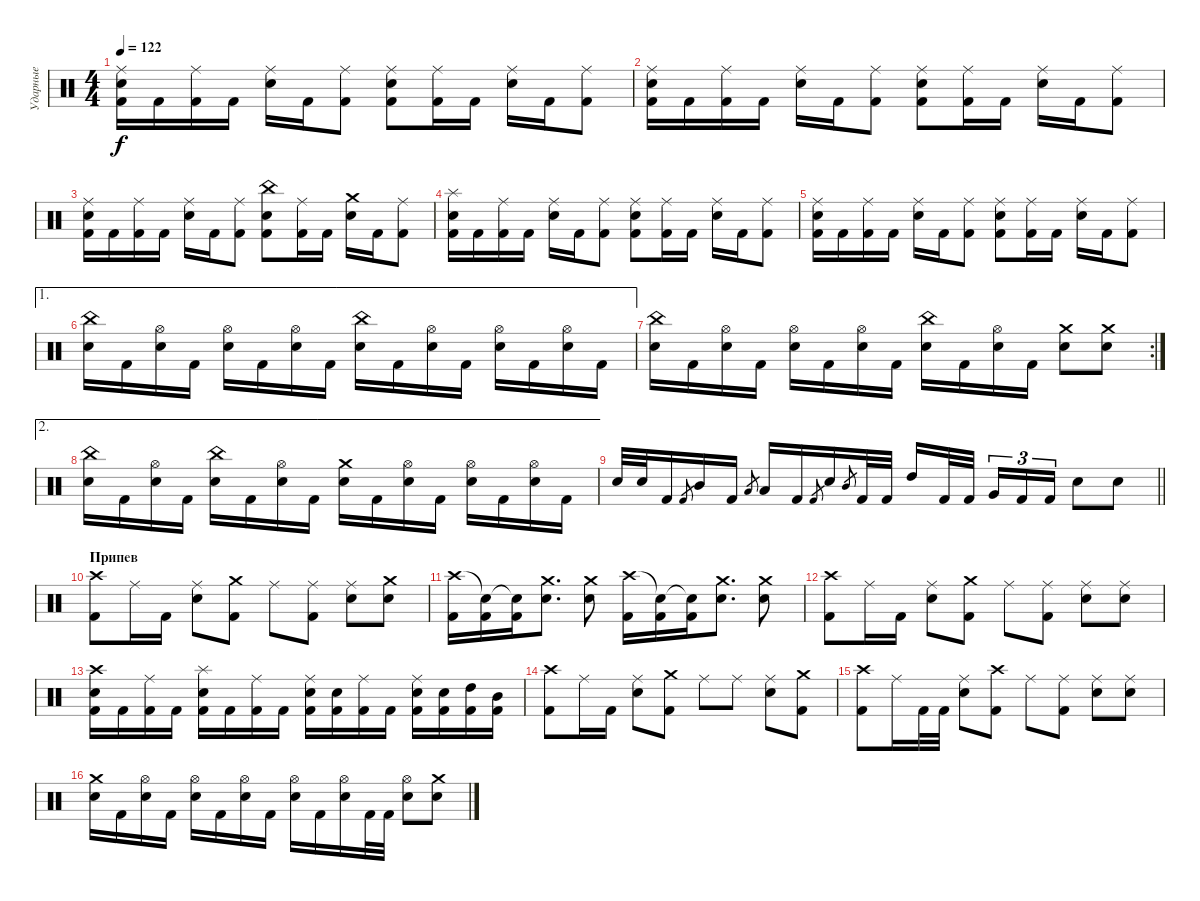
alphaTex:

\track ("Ударные" "Ударные") {instrument percussion}
\staff {score}
\articulation defaults
\ts (4 4)
\tempo 122
\clef neutral
\ks c
("Ride (middle)" "Electric Snare (hit)" "Kick (hit) 2").16{dy f} "Kick (hit) 2".16 ("Ride (middle)" "Kick (hit) 2").16 "Kick (hit) 2".16 ("Ride (middle)" "Electric Snare (hit)").16 "Kick (hit) 2".16 ("Ride (middle)" "Kick (hit) 2").8 ("Ride (middle)" "Electric Snare (hit)" "Kick (hit) 2").8 ("Ride (middle)" "Kick (hit) 2").16 "Kick (hit) 2".16 ("Ride (middle)" "Electric Snare (hit)").16 "Kick (hit) 2".16 ("Ride (middle)" "Kick (hit) 2").8 |
("Ride (middle)" "Electric Snare (hit)" "Kick (hit) 2").16 "Kick (hit) 2".16 ("Ride (middle)" "Kick (hit) 2").16 "Kick (hit) 2".16 ("Ride (middle)" "Electric Snare (hit)").16 "Kick (hit) 2".16 ("Ride (middle)" "Kick (hit) 2").8 ("Ride (middle)" "Electric Snare (hit)" "Kick (hit) 2").8 ("Ride (middle)" "Kick (hit) 2").16 "Kick (hit) 2".16 ("Ride (middle)" "Electric Snare (hit)").16 "Kick (hit) 2".16 ("Ride (middle)" "Kick (hit) 2").8 |
("Ride (middle)" "Electric Snare (hit)" "Kick (hit) 2").16 "Kick (hit) 2".16 ("Ride (middle)" "Kick (hit) 2").16 "Kick (hit) 2".16 ("Ride (middle)" "Electric Snare (hit)").16 "Kick (hit) 2".16 ("Ride (middle)" "Kick (hit) 2").8 ("China (hit)" "Electric Snare (hit)" "Kick (hit) 2").8 ("Ride (middle)" "Kick (hit) 2").16 "Kick (hit) 2".16 ("Crash medium (hit)" "Electric Snare (hit)").16 "Kick (hit) 2".16 ("Ride (middle)" "Kick (hit) 2").8 |
("Splash (hit)" "Electric Snare (hit)" "Kick (hit) 2").16 "Kick (hit) 2".16 ("Ride (middle)" "Kick (hit) 2").16 "Kick (hit) 2".16 ("Ride (middle)" "Electric Snare (hit)").16 "Kick (hit) 2".16 ("Ride (middle)" "Kick (hit) 2").8 ("Ride (middle)" "Electric Snare (hit)" "Kick (hit) 2").8 ("Ride (middle)" "Kick (hit) 2").16 "Kick (hit) 2".16 ("Ride (middle)" "Electric Snare (hit)").16 "Kick (hit) 2".16 ("Ride (middle)" "Kick (hit) 2").8 |
("Ride (middle)" "Electric Snare (hit)" "Kick (hit) 2").16 "Kick (hit) 2".16 ("Ride (middle)" "Kick (hit) 2").16 "Kick (hit) 2".16 ("Ride (middle)" "Electric Snare (hit)").16 "Kick (hit) 2".16 ("Ride (middle)" "Kick (hit) 2").8 ("Ride (middle)" "Electric Snare (hit)" "Kick (hit) 2").8 ("Ride (middle)" "Kick (hit) 2").16 "Kick (hit) 2".16 ("Ride (middle)" "Electric Snare (hit)").16 "Kick (hit) 2".16 ("Ride (middle)" "Kick (hit) 2").8 |
\ae 1
("China (hit)" "Electric Snare (hit)").16 "Kick (hit) 2".16 ("Hi-Hat (open)" "Electric Snare (hit)").16 "Kick (hit) 2".16 ("Hi-Hat (open)" "Electric Snare (hit)").16 "Kick (hit) 2".16 ("Hi-Hat (open)" "Electric Snare (hit)").16 "Kick (hit) 2".16 ("China (hit)" "Electric Snare (hit)").16 "Kick (hit) 2".16 ("Hi-Hat (open)" "Electric Snare (hit)").16 "Kick (hit) 2".16 ("Hi-Hat (open)" "Electric Snare (hit)").16 "Kick (hit) 2".16 ("Hi-Hat (open)" "Electric Snare (hit)").16 "Kick (hit) 2".16 |
\rc 2
("China (hit)" "Electric Snare (hit)").16 "Kick (hit) 2".16 ("Hi-Hat (open)" "Electric Snare (hit)").16 "Kick (hit) 2".16 ("Hi-Hat (open)" "Electric Snare (hit)").16 "Kick (hit) 2".16 ("Hi-Hat (open)" "Electric Snare (hit)").16 "Kick (hit) 2".16 ("China (hit)" "Electric Snare (hit)").16 "Kick (hit) 2".16 ("Hi-Hat (open)" "Electric Snare (hit)").16 "Kick (hit) 2".16 ("Crash medium (hit)" "Electric Snare (hit)").8 ("Crash medium (hit)" "Electric Snare (hit)").8 |
\ae 2
("China (hit)" "Electric Snare (hit)").16 "Kick (hit) 2".16 ("Hi-Hat (open)" "Electric Snare (hit)").16 "Kick (hit) 2".16 ("China (hit)" "Electric Snare (hit)").16 "Kick (hit) 2".16 ("Hi-Hat (open)" "Electric Snare (hit)").16 "Kick (hit) 2".16 ("Crash medium (hit)" "Electric Snare (hit)").16 "Kick (hit) 2".16 ("Hi-Hat (open)" "Electric Snare (hit)").16 "Kick (hit) 2".16 ("Hi-Hat (open)" "Electric Snare (hit)").16 "Kick (hit) 2".16 ("Hi-Hat (open)" "Electric Snare (hit)").16 "Kick (hit) 2".16 |
\barLineRight lightlight "Electric Snare (hit)".32 "Electric Snare (hit)".32 "Kick (hit) 2".16 "Kick (hit) 2".8{gr} "Mid Tom (hit)".16 "Kick (hit) 2".16 "Low Tom (hit)".8{gr} "Low Tom (hit)".16 "Kick (hit) 2".16 "Kick (hit) 2".8{gr} "Electric Snare (hit)".16 "Mid Tom (hit)".8{gr} "Kick (hit) 2".32 "Kick (hit) 2".32 "High Tom (hit)".16 "Kick (hit) 2".32 "Kick (hit) 2".32{beam splitsecondary} "Very Low Tom (hit)".16{tu (3 2)} "Kick (hit) 2".16{tu (3 2)} "Kick (hit) 2".16{tu (3 2)} "Electric Snare (hit)".8 "Electric Snare (hit)".8
|
\section ("" "Припев")
("Crash high (hit)" "Kick (hit) 2").8 "Ride (middle)".16 "Kick (hit) 2".16 ("Ride (middle)" "Electric Snare (hit)").8 ("Crash medium (hit)" "Kick (hit) 2").8 "Ride (middle)".8 ("Ride (middle)" "Kick (hit) 2").8 ("Ride (middle)" "Electric Snare (hit)").8 ("Crash medium (hit)" "Electric Snare (hit)").8 |
("Crash high (hit)" "Kick (hit) 2").16 ("Snare (hit)"{t} "Kick (hit) 2").16 ("Snare (hit)"{t} "Kick (hit) 2").16 ("Crash medium (hit)" "Electric Snare (hit)").8{d} ("Crash medium (hit)" "Electric Snare (hit)").8 ("Crash high (hit)" "Kick (hit) 2").16 ("Snare (hit)"{t} "Kick (hit) 2").16 ("Snare (hit)"{t} "Kick (hit) 2").16 ("Crash medium (hit)" "Electric Snare (hit)").8{d} ("Crash medium (hit)" "Electric Snare (hit)").8 |
("Crash high (hit)" "Kick (hit) 2").8 "Ride (middle)".16 "Kick (hit) 2".16 ("Ride (middle)" "Electric Snare (hit)").8 ("Crash medium (hit)" "Kick (hit) 2").8 "Ride (middle)".8 ("Ride (middle)" "Kick (hit) 2").8 ("Ride (middle)" "Electric Snare (hit)").8 ("Ride (middle)" "Electric Snare (hit)").8 |
("Crash high (hit)" "Electric Snare (hit)" "Kick (hit) 2").16 "Kick (hit) 2".16 ("Ride (middle)" "Kick (hit) 2").16 "Kick (hit) 2".16 ("Splash (hit)" "Electric Snare (hit)" "Kick (hit) 2").16 "Kick (hit) 2".16 ("Ride (middle)" "Kick (hit) 2").16 "Kick (hit) 2".16 ("Ride (middle)" "Electric Snare (hit)" "Kick (hit) 2").16 ("Electric Snare (hit)" "Kick (hit) 2").16 ("Ride (middle)" "Kick (hit) 2").16 "Kick (hit) 2".16 ("Ride (middle)" "Electric Snare (hit)" "Kick (hit) 2").16 ("Electric Snare (hit)" "Kick (hit) 2").16 ("High Tom (hit)" "Kick (hit) 2").16 ("Mid Tom (hit)" "Kick (hit) 2").16 |
("Crash high (hit)" "Kick (hit) 2").8 "Ride (middle)".16 "Kick (hit) 2".16 ("Ride (middle)" "Electric Snare (hit)").8 ("Crash medium (hit)" "Kick (hit) 2").8 "Ride (middle)".8 "Ride (middle)".8 ("Ride (middle)" "Electric Snare (hit)").8 ("Crash medium (hit)" "Kick (hit) 2").8 |
("Crash high (hit)" "Kick (hit) 2").8 "Ride (middle)".16 "Kick (hit) 2".32 "Kick (hit) 2".32 ("Ride (middle)" "Electric Snare (hit)").8 ("Crash high (hit)" "Kick (hit) 2").8 "Ride (middle)".8 ("Ride (middle)" "Kick (hit) 2").8 ("Ride (middle)" "Electric Snare (hit)").8 ("Ride (middle)" "Electric Snare (hit)").8 |
("Crash medium (hit)" "Electric Snare (hit)").16 "Kick (hit) 2".16 ("Hi-Hat (open)" "Electric Snare (hit)").16 "Kick (hit) 2".16 ("Hi-Hat (open)" "Electric Snare (hit)").16 "Kick (hit) 2".16 ("Hi-Hat (open)" "Electric Snare (hit)").16 "Kick (hit) 2".16 ("Hi-Hat (open)" "Electric Snare (hit)").16 "Kick (hit) 2".16 ("Hi-Hat (open)" "Electric Snare (hit)").16 "Kick (hit) 2".32 "Kick (hit) 2".32 ("Hi-Hat (open)" "Electric Snare (hit)").8 ("Crash medium (hit)" "Electric Snare (hit)").8
